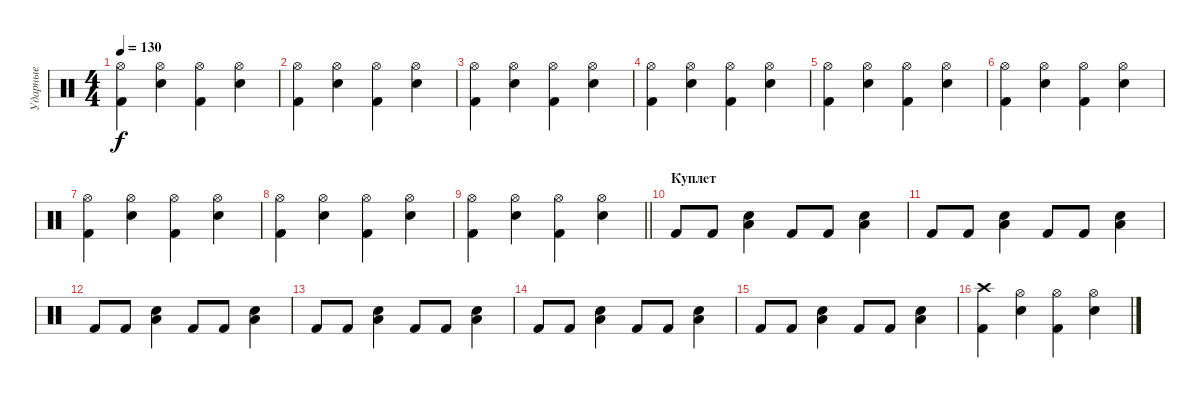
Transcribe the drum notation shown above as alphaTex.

\track ("Ударные" "Ударные") {instrument percussion}
\staff {score}
\articulation defaults
\ts (4 4)
\tempo 130
\clef neutral
\ks c
("Hi-Hat (open)" "Kick (hit) 2").4{dy f} ("Hi-Hat (open)" "Snare (hit) 2").4 ("Hi-Hat (open)" "Kick (hit) 2").4 ("Hi-Hat (open)" "Snare (hit) 2").4 |
("Hi-Hat (open)" "Kick (hit) 2").4 ("Hi-Hat (open)" "Snare (hit) 2").4 ("Hi-Hat (open)" "Kick (hit) 2").4 ("Hi-Hat (open)" "Snare (hit) 2").4 |
("Hi-Hat (open)" "Kick (hit) 2").4 ("Hi-Hat (open)" "Snare (hit) 2").4 ("Hi-Hat (open)" "Kick (hit) 2").4 ("Hi-Hat (open)" "Snare (hit) 2").4 |
("Hi-Hat (open)" "Kick (hit) 2").4 ("Hi-Hat (open)" "Snare (hit) 2").4 ("Hi-Hat (open)" "Kick (hit) 2").4 ("Hi-Hat (open)" "Snare (hit) 2").4 |
("Hi-Hat (open)" "Kick (hit) 2").4 ("Hi-Hat (open)" "Snare (hit) 2").4 ("Hi-Hat (open)" "Kick (hit) 2").4 ("Hi-Hat (open)" "Snare (hit) 2").4 |
("Hi-Hat (open)" "Kick (hit) 2").4 ("Hi-Hat (open)" "Snare (hit) 2").4 ("Hi-Hat (open)" "Kick (hit) 2").4 ("Hi-Hat (open)" "Snare (hit) 2").4 |
("Hi-Hat (open)" "Kick (hit) 2").4 ("Hi-Hat (open)" "Snare (hit) 2").4 ("Hi-Hat (open)" "Kick (hit) 2").4 ("Hi-Hat (open)" "Snare (hit) 2").4 |
("Hi-Hat (open)" "Kick (hit) 2").4 ("Hi-Hat (open)" "Snare (hit) 2").4 ("Hi-Hat (open)" "Kick (hit) 2").4 ("Hi-Hat (open)" "Snare (hit) 2").4 |
\barLineRight lightlight
("Hi-Hat (open)" "Kick (hit) 2").4 ("Hi-Hat (open)" "Snare (hit) 2").4 ("Hi-Hat (open)" "Kick (hit) 2").4 ("Hi-Hat (open)" "Snare (hit) 2").4 |
\section ("" "Куплет")
"Kick (hit) 2".8 "Kick (hit) 2".8 ("Low Tom (hit)" "Snare (hit) 2").4 "Kick (hit) 2".8 "Kick (hit) 2".8 ("Low Tom (hit)" "Snare (hit) 2").4 |
"Kick (hit) 2".8 "Kick (hit) 2".8 ("Low Tom (hit)" "Snare (hit) 2").4 "Kick (hit) 2".8 "Kick (hit) 2".8 ("Low Tom (hit)" "Snare (hit) 2").4 |
"Kick (hit) 2".8 "Kick (hit) 2".8 ("Low Tom (hit)" "Snare (hit) 2").4 "Kick (hit) 2".8 "Kick (hit) 2".8 ("Low Tom (hit)" "Snare (hit) 2").4 |
"Kick (hit) 2".8 "Kick (hit) 2".8 ("Low Tom (hit)" "Snare (hit) 2").4 "Kick (hit) 2".8 "Kick (hit) 2".8 ("Low Tom (hit)" "Snare (hit) 2").4 |
"Kick (hit) 2".8 "Kick (hit) 2".8 ("Low Tom (hit)" "Snare (hit) 2").4 "Kick (hit) 2".8 "Kick (hit) 2".8 ("Low Tom (hit)" "Snare (hit) 2").4 |
"Kick (hit) 2".8 "Kick (hit) 2".8 ("Low Tom (hit)" "Snare (hit) 2").4 "Kick (hit) 2".8 "Kick (hit) 2".8 ("Low Tom (hit)" "Snare (hit) 2").4 |
("Crash high (hit)" "Kick (hit) 2").4 ("Hi-Hat (open)" "Snare (hit) 2").4 ("Hi-Hat (open)" "Kick (hit) 2").4 ("Hi-Hat (open)" "Snare (hit) 2").4
